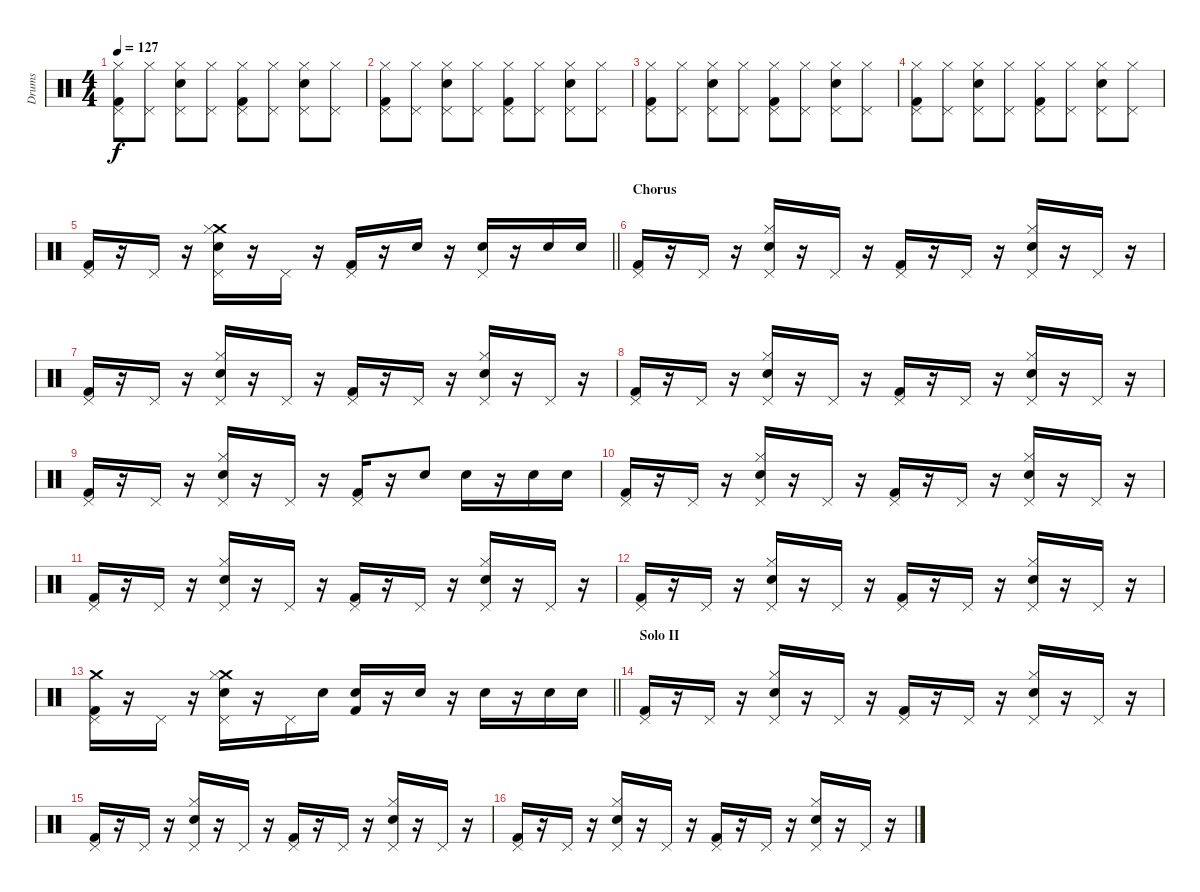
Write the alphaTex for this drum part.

\track ("Drums" "Drums") {instrument percussion}
\staff {score}
\articulation defaults
\ts (4 4)
\tempo 127
\clef neutral
\ks c
("Pedal Hi-Hat (hit)" "Hi-Hat (closed)" "Kick (hit) 2").8{dy f} ("Pedal Hi-Hat (hit)" "Hi-Hat (closed)").8 ("Pedal Hi-Hat (hit)" "Hi-Hat (closed)" "Electric Snare (hit)").8 ("Pedal Hi-Hat (hit)" "Hi-Hat (closed)").8 ("Pedal Hi-Hat (hit)" "Hi-Hat (closed)" "Kick (hit) 2").8 ("Pedal Hi-Hat (hit)" "Hi-Hat (closed)").8 ("Pedal Hi-Hat (hit)" "Hi-Hat (closed)" "Electric Snare (hit)").8 ("Pedal Hi-Hat (hit)" "Hi-Hat (closed)").8 |
("Pedal Hi-Hat (hit)" "Hi-Hat (closed)" "Kick (hit) 2").8 ("Pedal Hi-Hat (hit)" "Hi-Hat (closed)").8 ("Pedal Hi-Hat (hit)" "Hi-Hat (closed)" "Electric Snare (hit)").8 ("Pedal Hi-Hat (hit)" "Hi-Hat (closed)").8 ("Pedal Hi-Hat (hit)" "Hi-Hat (closed)" "Kick (hit) 2").8 ("Pedal Hi-Hat (hit)" "Hi-Hat (closed)").8 ("Pedal Hi-Hat (hit)" "Hi-Hat (closed)" "Electric Snare (hit)").8 ("Pedal Hi-Hat (hit)" "Hi-Hat (closed)").8 |
("Pedal Hi-Hat (hit)" "Hi-Hat (closed)" "Kick (hit) 2").8 ("Pedal Hi-Hat (hit)" "Hi-Hat (closed)").8 ("Pedal Hi-Hat (hit)" "Hi-Hat (closed)" "Electric Snare (hit)").8 ("Pedal Hi-Hat (hit)" "Hi-Hat (closed)").8 ("Pedal Hi-Hat (hit)" "Hi-Hat (closed)" "Kick (hit) 2").8 ("Pedal Hi-Hat (hit)" "Hi-Hat (closed)").8 ("Pedal Hi-Hat (hit)" "Hi-Hat (closed)" "Electric Snare (hit)").8 ("Pedal Hi-Hat (hit)" "Hi-Hat (closed)").8 |
("Pedal Hi-Hat (hit)" "Hi-Hat (closed)" "Kick (hit) 2").8 ("Pedal Hi-Hat (hit)" "Hi-Hat (closed)").8 ("Pedal Hi-Hat (hit)" "Hi-Hat (closed)" "Electric Snare (hit)").8 ("Pedal Hi-Hat (hit)" "Hi-Hat (closed)").8 ("Pedal Hi-Hat (hit)" "Hi-Hat (closed)" "Kick (hit) 2").8 ("Pedal Hi-Hat (hit)" "Hi-Hat (closed)").8 ("Pedal Hi-Hat (hit)" "Hi-Hat (closed)" "Electric Snare (hit)").8 ("Pedal Hi-Hat (hit)" "Hi-Hat (closed)").8 |
\barLineRight lightlight
("Pedal Hi-Hat (hit)" "Kick (hit) 2").16 r.16 "Pedal Hi-Hat (hit)".16 r.16 ("Crash medium (hit)" "Hi-Hat (closed)" "Pedal Hi-Hat (hit)" "Electric Snare (hit)").16 r.16 "Pedal Hi-Hat (hit)".16 r.16 ("Pedal Hi-Hat (hit)" "Kick (hit) 2").16 r.16 "Electric Snare (hit)".16 r.16 ("Pedal Hi-Hat (hit)" "Electric Snare (hit)").16 r.16 "Electric Snare (hit)".16 "Electric Snare (hit)".16 |
\section ("" "Chorus")
("Pedal Hi-Hat (hit)" "Kick (hit) 2").16 r.16 "Pedal Hi-Hat (hit)".16 r.16 ("Hi-Hat (closed)" "Pedal Hi-Hat (hit)" "Electric Snare (hit)").16 r.16 "Pedal Hi-Hat (hit)".16 r.16 ("Pedal Hi-Hat (hit)" "Kick (hit) 2").16 r.16 "Pedal Hi-Hat (hit)".16 r.16 ("Hi-Hat (closed)" "Pedal Hi-Hat (hit)" "Electric Snare (hit)").16 r.16 "Pedal Hi-Hat (hit)".16 r.16 |
("Pedal Hi-Hat (hit)" "Kick (hit) 2").16 r.16 "Pedal Hi-Hat (hit)".16 r.16 ("Hi-Hat (closed)" "Pedal Hi-Hat (hit)" "Electric Snare (hit)").16 r.16 "Pedal Hi-Hat (hit)".16 r.16 ("Pedal Hi-Hat (hit)" "Kick (hit) 2").16 r.16 "Pedal Hi-Hat (hit)".16 r.16 ("Hi-Hat (closed)" "Pedal Hi-Hat (hit)" "Electric Snare (hit)").16 r.16 "Pedal Hi-Hat (hit)".16 r.16 |
("Pedal Hi-Hat (hit)" "Kick (hit) 2").16 r.16 "Pedal Hi-Hat (hit)".16 r.16 ("Hi-Hat (closed)" "Pedal Hi-Hat (hit)" "Electric Snare (hit)").16 r.16 "Pedal Hi-Hat (hit)".16 r.16 ("Pedal Hi-Hat (hit)" "Kick (hit) 2").16 r.16 "Pedal Hi-Hat (hit)".16 r.16 ("Hi-Hat (closed)" "Pedal Hi-Hat (hit)" "Electric Snare (hit)").16 r.16 "Pedal Hi-Hat (hit)".16 r.16 |
("Pedal Hi-Hat (hit)" "Kick (hit) 2").16 r.16 "Pedal Hi-Hat (hit)".16 r.16 ("Hi-Hat (closed)" "Pedal Hi-Hat (hit)" "Electric Snare (hit)").16 r.16 "Pedal Hi-Hat (hit)".16 r.16 ("Pedal Hi-Hat (hit)" "Kick (hit) 2").16 r.16 "Electric Snare (hit)".8 "Electric Snare (hit)".16 r.16 "Electric Snare (hit)".16 "Electric Snare (hit)".16 |
("Pedal Hi-Hat (hit)" "Kick (hit) 2").16 r.16 "Pedal Hi-Hat (hit)".16 r.16 ("Hi-Hat (closed)" "Pedal Hi-Hat (hit)" "Electric Snare (hit)").16 r.16 "Pedal Hi-Hat (hit)".16 r.16 ("Pedal Hi-Hat (hit)" "Kick (hit) 2").16 r.16 "Pedal Hi-Hat (hit)".16 r.16 ("Hi-Hat (closed)" "Pedal Hi-Hat (hit)" "Electric Snare (hit)").16 r.16 "Pedal Hi-Hat (hit)".16 r.16 |
("Pedal Hi-Hat (hit)" "Kick (hit) 2").16 r.16 "Pedal Hi-Hat (hit)".16 r.16 ("Hi-Hat (closed)" "Pedal Hi-Hat (hit)" "Electric Snare (hit)").16 r.16 "Pedal Hi-Hat (hit)".16 r.16 ("Pedal Hi-Hat (hit)" "Kick (hit) 2").16 r.16 "Pedal Hi-Hat (hit)".16 r.16 ("Hi-Hat (closed)" "Pedal Hi-Hat (hit)" "Electric Snare (hit)").16 r.16 "Pedal Hi-Hat (hit)".16 r.16 |
("Pedal Hi-Hat (hit)" "Kick (hit) 2").16 r.16 "Pedal Hi-Hat (hit)".16 r.16 ("Hi-Hat (closed)" "Pedal Hi-Hat (hit)" "Electric Snare (hit)").16 r.16 "Pedal Hi-Hat (hit)".16 r.16 ("Pedal Hi-Hat (hit)" "Kick (hit) 2").16 r.16 "Pedal Hi-Hat (hit)".16 r.16 ("Hi-Hat (closed)" "Pedal Hi-Hat (hit)" "Electric Snare (hit)").16 r.16 "Pedal Hi-Hat (hit)".16 r.16 |
\barLineRight lightlight
("Crash medium (hit)" "Pedal Hi-Hat (hit)" "Kick (hit) 2").16 r.16 "Pedal Hi-Hat (hit)".16 r.16 ("Crash medium (hit)" "Hi-Hat (closed)" "Pedal Hi-Hat (hit)" "Electric Snare (hit)").16 r.16 "Pedal Hi-Hat (hit)".16 "Electric Snare (hit)".16 ("Electric Snare (hit)" "Kick (hit) 2").16 r.16 "Electric Snare (hit)".16 r.16 "Electric Snare (hit)".16 r.16 "Electric Snare (hit)".16 "Electric Snare (hit)".16 |
\section ("" "Solo II")
("Pedal Hi-Hat (hit)" "Kick (hit) 2").16 r.16 "Pedal Hi-Hat (hit)".16 r.16 ("Hi-Hat (closed)" "Pedal Hi-Hat (hit)" "Electric Snare (hit)").16 r.16 "Pedal Hi-Hat (hit)".16 r.16 ("Pedal Hi-Hat (hit)" "Kick (hit) 2").16 r.16 "Pedal Hi-Hat (hit)".16 r.16 ("Hi-Hat (closed)" "Pedal Hi-Hat (hit)" "Electric Snare (hit)").16 r.16 "Pedal Hi-Hat (hit)".16 r.16 |
("Pedal Hi-Hat (hit)" "Kick (hit) 2").16 r.16 "Pedal Hi-Hat (hit)".16 r.16 ("Hi-Hat (closed)" "Pedal Hi-Hat (hit)" "Electric Snare (hit)").16 r.16 "Pedal Hi-Hat (hit)".16 r.16 ("Pedal Hi-Hat (hit)" "Kick (hit) 2").16 r.16 "Pedal Hi-Hat (hit)".16 r.16 ("Hi-Hat (closed)" "Pedal Hi-Hat (hit)" "Electric Snare (hit)").16 r.16 "Pedal Hi-Hat (hit)".16 r.16 |
("Pedal Hi-Hat (hit)" "Kick (hit) 2").16 r.16 "Pedal Hi-Hat (hit)".16 r.16 ("Hi-Hat (closed)" "Pedal Hi-Hat (hit)" "Electric Snare (hit)").16 r.16 "Pedal Hi-Hat (hit)".16 r.16 ("Pedal Hi-Hat (hit)" "Kick (hit) 2").16 r.16 "Pedal Hi-Hat (hit)".16 r.16 ("Hi-Hat (closed)" "Pedal Hi-Hat (hit)" "Electric Snare (hit)").16 r.16 "Pedal Hi-Hat (hit)".16 r.16
